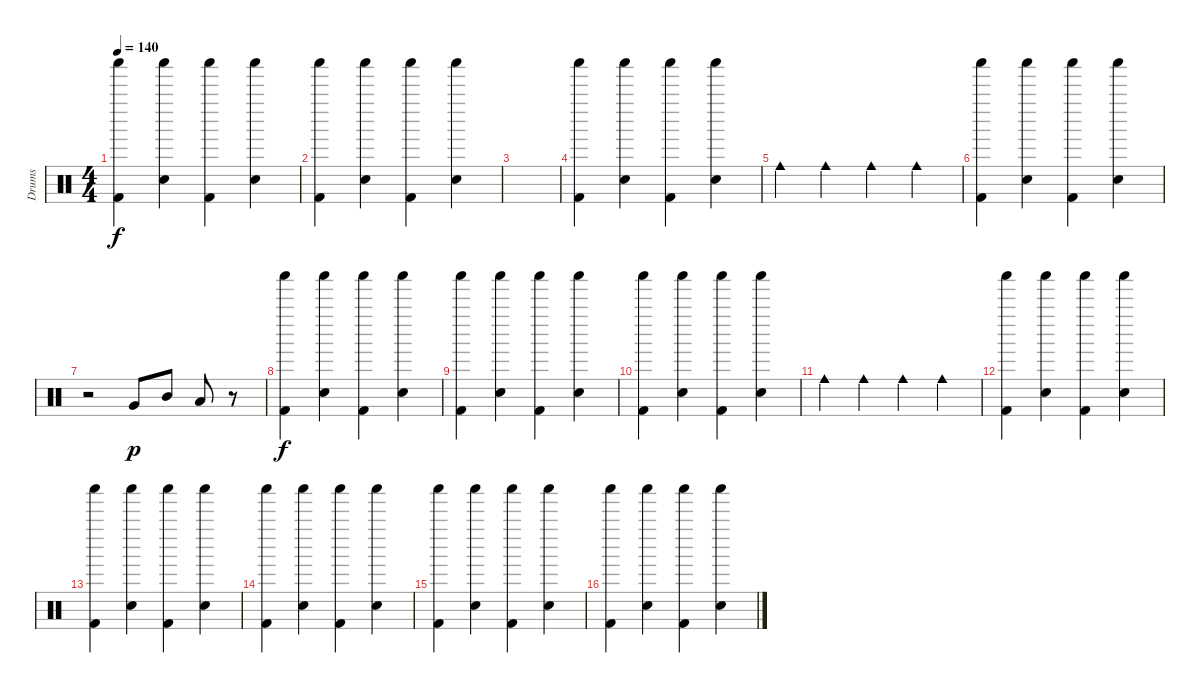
\track ("Drums" "Drums") {instrument percussion}
\staff {score}
\articulation defaults
\ts (4 4)
\tempo 140
\clef neutral
\ks c
("Shaker (hit)" "Kick (hit) 2").4{dy f} ("Shaker (hit)" "Snare (hit) 2").4 ("Shaker (hit)" "Kick (hit) 2").4 ("Shaker (hit)" "Snare (hit) 2").4 |
("Shaker (hit)" "Kick (hit) 2").4 ("Shaker (hit)" "Snare (hit) 2").4 ("Shaker (hit)" "Kick (hit) 2").4 ("Shaker (hit)" "Snare (hit) 2").4 |
|
("Shaker (hit)" "Kick (hit) 2").4 ("Shaker (hit)" "Snare (hit) 2").4 ("Shaker (hit)" "Kick (hit) 2").4 ("Shaker (hit)" "Snare (hit) 2").4 |
"Cowbell medium (hit)".4 "Cowbell medium (hit)".4 "Cowbell medium (hit)".4 "Cowbell medium (hit)".4 |
("Shaker (hit)" "Kick (hit) 2").4 ("Shaker (hit)" "Snare (hit) 2").4 ("Shaker (hit)" "Kick (hit) 2").4 ("Shaker (hit)" "Snare (hit) 2").4 |
r.2 "Very Low Tom (hit)".8{dy p} "Mid Tom (hit)".8 "Low Tom (hit)".8 r.8 |
("Shaker (hit)" "Kick (hit) 2").4{dy f} ("Shaker (hit)" "Snare (hit) 2").4 ("Shaker (hit)" "Kick (hit) 2").4 ("Shaker (hit)" "Snare (hit) 2").4 |
("Shaker (hit)" "Kick (hit) 2").4 ("Shaker (hit)" "Snare (hit) 2").4 ("Shaker (hit)" "Kick (hit) 2").4 ("Shaker (hit)" "Snare (hit) 2").4 |
("Shaker (hit)" "Kick (hit) 2").4 ("Shaker (hit)" "Snare (hit) 2").4 ("Shaker (hit)" "Kick (hit) 2").4 ("Shaker (hit)" "Snare (hit) 2").4 |
"Cowbell medium (hit)".4 "Cowbell medium (hit)".4 "Cowbell medium (hit)".4 "Cowbell medium (hit)".4 |
("Shaker (hit)" "Kick (hit) 2").4 ("Shaker (hit)" "Snare (hit) 2").4 ("Shaker (hit)" "Kick (hit) 2").4 ("Shaker (hit)" "Snare (hit) 2").4 |
("Shaker (hit)" "Kick (hit) 2").4 ("Shaker (hit)" "Snare (hit) 2").4 ("Shaker (hit)" "Kick (hit) 2").4 ("Shaker (hit)" "Snare (hit) 2").4 |
("Shaker (hit)" "Kick (hit) 2").4 ("Shaker (hit)" "Snare (hit) 2").4 ("Shaker (hit)" "Kick (hit) 2").4 ("Shaker (hit)" "Snare (hit) 2").4 |
("Shaker (hit)" "Kick (hit) 2").4 ("Shaker (hit)" "Snare (hit) 2").4 ("Shaker (hit)" "Kick (hit) 2").4 ("Shaker (hit)" "Snare (hit) 2").4 |
("Shaker (hit)" "Kick (hit) 2").4 ("Shaker (hit)" "Snare (hit) 2").4 ("Shaker (hit)" "Kick (hit) 2").4 ("Shaker (hit)" "Snare (hit) 2").4
